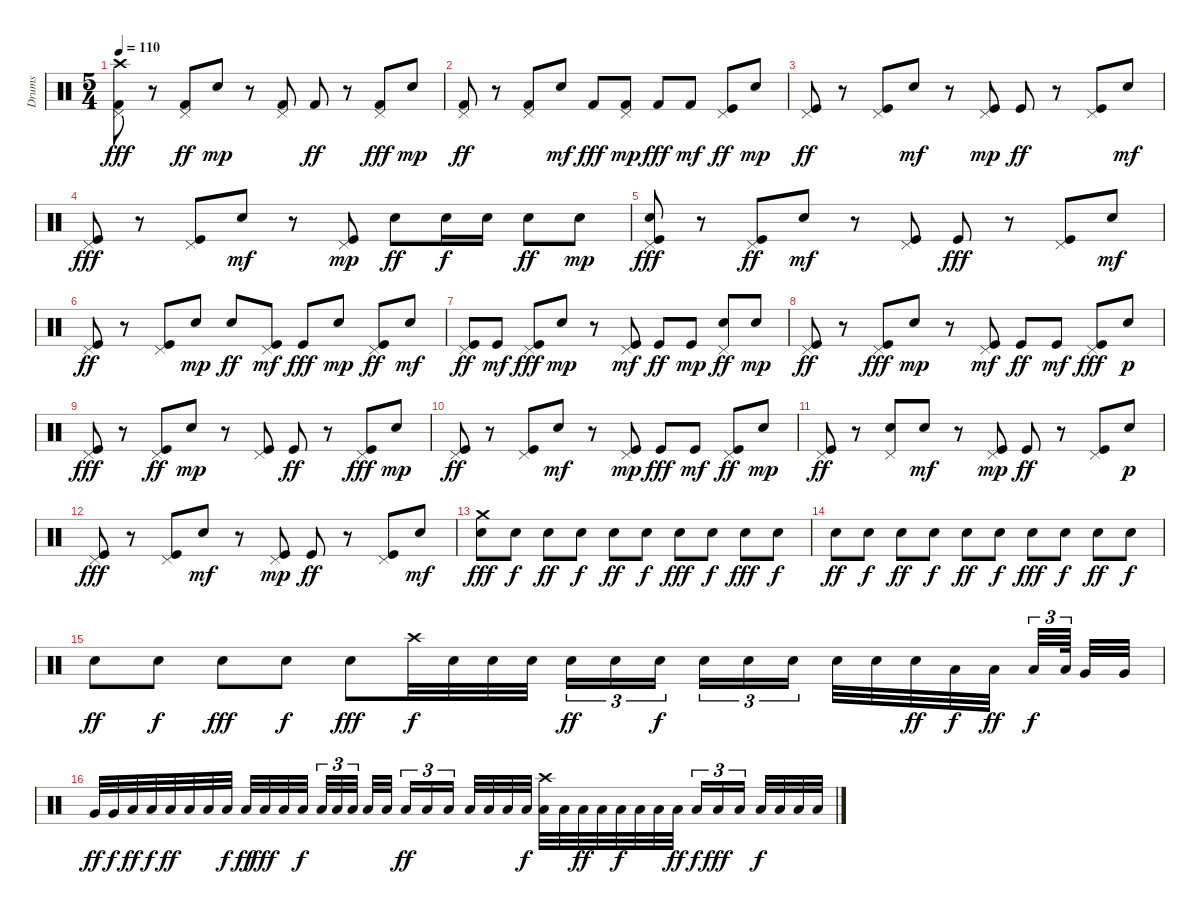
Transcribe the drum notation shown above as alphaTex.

\track ("Drums" "Drums") {instrument percussion}
\staff {score}
\articulation defaults
\ts (5 4)
\tempo 110
\clef neutral
\ks c
("Crash high (hit)" "Pedal Hi-Hat (hit)" "Kick (hit) 2").8{dy fff} r.8 ("Pedal Hi-Hat (hit)" "Kick (hit) 2").8{dy ff} "Electric Snare (hit)".8{dy mp} r.8 ("Pedal Hi-Hat (hit)" "Kick (hit) 2").8 "Kick (hit) 2".8{dy ff} r.8 ("Pedal Hi-Hat (hit)" "Kick (hit) 2").8{dy fff} "Electric Snare (hit)".8{dy mp} |
("Pedal Hi-Hat (hit)" "Kick (hit) 2").8{dy ff} r.8 ("Pedal Hi-Hat (hit)" "Kick (hit) 2").8 "Electric Snare (hit)".8{dy mf} "Kick (hit) 2".8{dy fff} ("Pedal Hi-Hat (hit)" "Kick (hit) 2").8{dy mp} "Kick (hit) 2".8{dy fff} "Kick (hit) 2".8{dy mf} ("Pedal Hi-Hat (hit)" "Kick (hit)").8{dy ff} "Electric Snare (hit)".8{dy mp} |
("Pedal Hi-Hat (hit)" "Kick (hit)").8{dy ff} r.8 ("Pedal Hi-Hat (hit)" "Kick (hit)").8 "Electric Snare (hit)".8{dy mf} r.8 ("Pedal Hi-Hat (hit)" "Kick (hit)").8{dy mp} "Kick (hit)".8{dy ff} r.8 ("Pedal Hi-Hat (hit)" "Kick (hit)").8 "Electric Snare (hit)".8{dy mf} |
("Pedal Hi-Hat (hit)" "Kick (hit)").8{dy fff} r.8 ("Pedal Hi-Hat (hit)" "Kick (hit)").8 "Electric Snare (hit)".8{dy mf} r.8 ("Pedal Hi-Hat (hit)" "Kick (hit)").8{dy mp} "Electric Snare (hit)".8{dy ff} "Electric Snare (hit)".16{dy f} "Electric Snare (hit)".16 "Electric Snare (hit)".8{dy ff} "Electric Snare (hit)".8{dy mp} |
("Electric Snare (hit)" "Pedal Hi-Hat (hit)" "Kick (hit)").8{dy fff} r.8 ("Pedal Hi-Hat (hit)" "Kick (hit)").8{dy ff} "Electric Snare (hit)".8{dy mf} r.8 ("Pedal Hi-Hat (hit)" "Kick (hit)").8 "Kick (hit)".8{dy fff} r.8 ("Pedal Hi-Hat (hit)" "Kick (hit)").8 "Electric Snare (hit)".8{dy mf} |
("Pedal Hi-Hat (hit)" "Kick (hit)").8{dy ff} r.8 ("Pedal Hi-Hat (hit)" "Kick (hit)").8 "Electric Snare (hit)".8{dy mp} "Electric Snare (hit)".8{dy ff} ("Pedal Hi-Hat (hit)" "Kick (hit)").8{dy mf} "Kick (hit)".8{dy fff} "Electric Snare (hit)".8{dy mp} ("Pedal Hi-Hat (hit)" "Kick (hit)").8{dy ff} "Electric Snare (hit)".8{dy mf} |
("Pedal Hi-Hat (hit)" "Kick (hit)").8{dy ff} "Kick (hit)".8{dy mf} ("Pedal Hi-Hat (hit)" "Kick (hit)").8{dy fff} "Electric Snare (hit)".8{dy mp} r.8 ("Pedal Hi-Hat (hit)" "Kick (hit)").8{dy mf} "Kick (hit)".8{dy ff} "Kick (hit)".8{dy mp} ("Pedal Hi-Hat (hit)" "Electric Snare (hit)").8{dy ff} "Electric Snare (hit)".8{dy mp} |
("Pedal Hi-Hat (hit)" "Kick (hit)").8{dy ff} r.8 ("Pedal Hi-Hat (hit)" "Kick (hit)").8{dy fff} "Electric Snare (hit)".8{dy mp} r.8 ("Pedal Hi-Hat (hit)" "Kick (hit)").8{dy mf} "Kick (hit)".8{dy ff} "Kick (hit)".8{dy mf} ("Pedal Hi-Hat (hit)" "Kick (hit)").8{dy fff} "Electric Snare (hit)".8{dy p} |
("Pedal Hi-Hat (hit)" "Kick (hit)").8{dy fff} r.8 ("Pedal Hi-Hat (hit)" "Kick (hit)").8{dy ff} "Electric Snare (hit)".8{dy mp} r.8 ("Pedal Hi-Hat (hit)" "Kick (hit)").8 "Kick (hit)".8{dy ff} r.8 ("Pedal Hi-Hat (hit)" "Kick (hit)").8{dy fff} "Electric Snare (hit)".8{dy mp} |
("Pedal Hi-Hat (hit)" "Kick (hit)").8{dy ff} r.8 ("Pedal Hi-Hat (hit)" "Kick (hit)").8 "Electric Snare (hit)".8{dy mf} r.8 ("Pedal Hi-Hat (hit)" "Kick (hit)").8{dy mp} "Kick (hit)".8{dy fff} "Kick (hit)".8{dy mf} ("Pedal Hi-Hat (hit)" "Kick (hit)").8{dy ff} "Electric Snare (hit)".8{dy mp} |
("Pedal Hi-Hat (hit)" "Kick (hit)").8{dy ff} r.8 ("Pedal Hi-Hat (hit)" "Electric Snare (hit)").8 "Electric Snare (hit)".8{dy mf} r.8 ("Pedal Hi-Hat (hit)" "Kick (hit)").8{dy mp} "Kick (hit)".8{dy ff} r.8 ("Pedal Hi-Hat (hit)" "Kick (hit)").8 "Electric Snare (hit)".8{dy p} |
("Pedal Hi-Hat (hit)" "Kick (hit)").8{dy fff} r.8 ("Pedal Hi-Hat (hit)" "Kick (hit)").8 "Electric Snare (hit)".8{dy mf} r.8 ("Pedal Hi-Hat (hit)" "Kick (hit)").8{dy mp} "Kick (hit)".8{dy ff} r.8 ("Pedal Hi-Hat (hit)" "Kick (hit)").8 "Electric Snare (hit)".8{dy mf} |
("Crash medium (hit)" "Snare (hit) 2").8{dy fff} "Snare (hit) 2".8{dy f} "Snare (hit) 2".8{dy ff} "Snare (hit) 2".8{dy f} "Snare (hit) 2".8{dy ff} "Snare (hit) 2".8{dy f} "Snare (hit) 2".8{dy fff} "Snare (hit) 2".8{dy f} "Snare (hit) 2".8{dy fff} "Snare (hit) 2".8{dy f} |
"Snare (hit) 2".8{dy ff} "Snare (hit) 2".8{dy f} "Snare (hit) 2".8{dy ff} "Snare (hit) 2".8{dy f} "Snare (hit) 2".8{dy ff} "Snare (hit) 2".8{dy f} "Snare (hit) 2".8{dy fff} "Snare (hit) 2".8{dy f} "Snare (hit) 2".8{dy ff} "Snare (hit) 2".8{dy f} |
"Snare (hit) 2".8{dy ff} "Snare (hit) 2".8{dy f} "Snare (hit) 2".8{dy fff} "Snare (hit) 2".8{dy f} "Electric Snare (hit)".8{dy fff} "Crash high (hit)".32{dy f} "Electric Snare (hit)".32 "Electric Snare (hit)".32 "Electric Snare (hit)".32 "Electric Snare (hit)".16{tu (3 2) dy ff} "Electric Snare (hit)".16{tu (3 2)} "Electric Snare (hit)".16{tu (3 2) dy f beam splitsecondary} "Electric Snare (hit)".16{tu (3 2)} "Electric Snare (hit)".16{tu (3 2)} "Electric Snare (hit)".16{tu (3 2)} "Electric Snare (hit)".32 "Electric Snare (hit)".32 "Electric Snare (hit)".32{dy ff} "Low Tom (hit)".32{dy f} "Low Tom (hit)".32{dy ff beam splitsecondary} "Low Tom (hit)".32{tu (3 2) dy f} "Low Tom (hit)".64{tu (3 2) beam splitsecondary} "Very Low Tom (hit)".32 "Very Low Tom (hit)".32 |
"Very Low Tom (hit)".32{dy ff} "Very Low Tom (hit)".32{dy f} "Low Floor Tom (hit)".32{dy ff} "Low Floor Tom (hit)".32{dy f} "Low Floor Tom (hit)".32{dy ff} "Low Floor Tom (hit)".32 "Low Floor Tom (hit)".32 "Low Floor Tom (hit)".32{dy f} "Low Floor Tom (hit)".32{dy ff} "Low Floor Tom (hit)".32{dy fff} "Low Floor Tom (hit)".32 "Low Floor Tom (hit)".32{dy f beam splitsecondary} "Low Floor Tom (hit)".32{tu (3 2)} "Low Floor Tom (hit)".32{tu (3 2)} "Low Floor Tom (hit)".32{tu (3 2) beam splitsecondary} "Low Floor Tom (hit)".32 "Low Floor Tom (hit)".32 "Low Floor Tom (hit)".16{tu (3 2) dy ff} "Low Floor Tom (hit)".16{tu (3 2)} "Low Floor Tom (hit)".16{tu (3 2) beam splitsecondary} "Low Floor Tom (hit)".32 "Low Floor Tom (hit)".32 "Low Floor Tom (hit)".32 "Low Floor Tom (hit)".32{dy f} ("Low Floor Tom (hit)" "Crash high (hit)").32 "Low Floor Tom (hit)".32 "Low Floor Tom (hit)".32{dy ff} "Low Floor Tom (hit)".32 "Low Floor Tom (hit)".32{dy f} "Low Floor Tom (hit)".32 "Low Floor Tom (hit)".32 "Low Floor Tom (hit)".32{dy ff} "Low Floor Tom (hit)".16{tu (3 2) dy f} "Low Floor Tom (hit)".16{tu (3 2) dy fff} "Low Floor Tom (hit)".16{tu (3 2) beam splitsecondary} "Low Floor Tom (hit)".32{dy f} "Low Floor Tom (hit)".32 "Low Floor Tom (hit)".32 "Low Floor Tom (hit)".32
